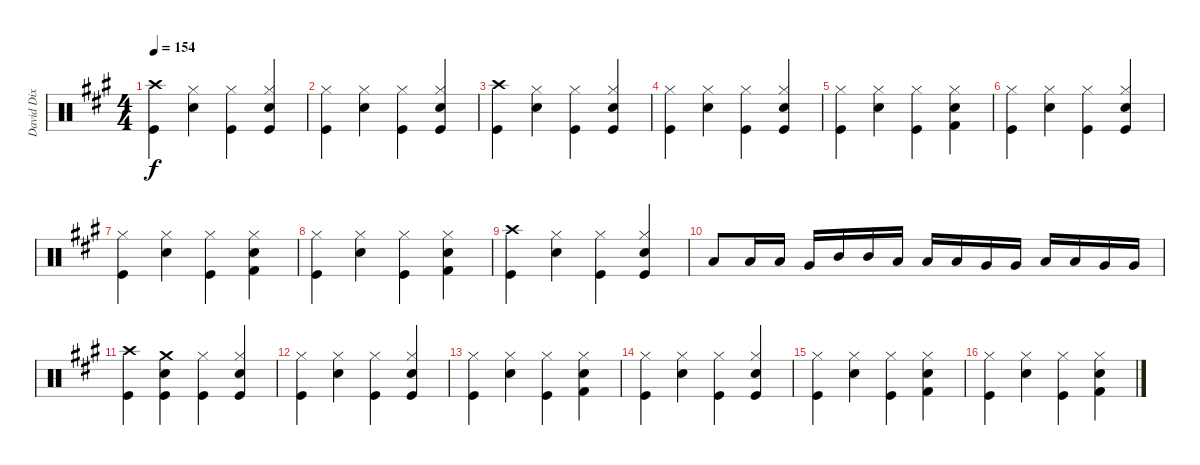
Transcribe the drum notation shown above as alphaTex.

\track ("David Dix Drums" "David Dix ") {instrument percussion}
\staff {score}
\articulation defaults
\ts (4 4)
\tempo 154
\clef neutral
\ks f#minor
("Crash high (hit)" "Kick (hit)").4{dy f} ("Hi-Hat (closed)" "Snare (hit) 2").4 ("Hi-Hat (closed)" "Kick (hit)").4 ("Hi-Hat (closed)" "Snare (hit) 2" "Kick (hit)").4 |
("Hi-Hat (closed)" "Kick (hit)").4 ("Hi-Hat (closed)" "Snare (hit) 2").4 ("Hi-Hat (closed)" "Kick (hit)").4 ("Hi-Hat (closed)" "Snare (hit) 2" "Kick (hit)").4 |
("Crash high (hit)" "Kick (hit)").4 ("Hi-Hat (closed)" "Snare (hit) 2").4 ("Hi-Hat (closed)" "Kick (hit)").4 ("Hi-Hat (closed)" "Snare (hit) 2" "Kick (hit)").4 |
("Hi-Hat (closed)" "Kick (hit)").4 ("Hi-Hat (closed)" "Snare (hit) 2").4 ("Hi-Hat (closed)" "Kick (hit)").4 ("Hi-Hat (closed)" "Snare (hit) 2" "Kick (hit)").4 |
("Hi-Hat (closed)" "Kick (hit)").4 ("Hi-Hat (closed)" "Snare (hit) 2").4 ("Hi-Hat (closed)" "Kick (hit)").4 ("Hi-Hat (closed)" "Snare (hit) 2" "Kick (hit) 2").4 |
("Hi-Hat (closed)" "Kick (hit)").4 ("Hi-Hat (closed)" "Snare (hit) 2").4 ("Hi-Hat (closed)" "Kick (hit)").4 ("Hi-Hat (closed)" "Snare (hit) 2" "Kick (hit)").4 |
("Hi-Hat (closed)" "Kick (hit)").4 ("Hi-Hat (closed)" "Snare (hit) 2").4 ("Hi-Hat (closed)" "Kick (hit)").4 ("Hi-Hat (closed)" "Snare (hit) 2" "Kick (hit) 2").4 |
("Hi-Hat (closed)" "Kick (hit)").4 ("Hi-Hat (closed)" "Snare (hit) 2").4 ("Hi-Hat (closed)" "Kick (hit)").4 ("Hi-Hat (closed)" "Snare (hit) 2" "Kick (hit) 2").4 |
("Crash high (hit)" "Kick (hit)").4 ("Hi-Hat (closed)" "Snare (hit) 2").4 ("Hi-Hat (closed)" "Kick (hit)").4 ("Hi-Hat (closed)" "Snare (hit) 2" "Kick (hit)").4 |
"Low Tom (hit)".8 "Low Tom (hit)".16 "Low Tom (hit)".16 "Very Low Tom (hit)".16 "Mid Tom (hit)".16 "Mid Tom (hit)".16 "Low Tom (hit)".16 "Low Tom (hit)".16 "Low Tom (hit)".16 "Very Low Tom (hit)".16 "Very Low Tom (hit)".16 "Low Tom (hit)".16 "Low Tom (hit)".16 "Very Low Tom (hit)".16 "Very Low Tom (hit)".16 |
("Crash high (hit)" "Kick (hit)").4 ("Crash medium (hit)" "Snare (hit) 2" "Kick (hit)").4 ("Hi-Hat (closed)" "Kick (hit)").4 ("Hi-Hat (closed)" "Snare (hit) 2" "Kick (hit)").4 |
("Hi-Hat (closed)" "Kick (hit)").4 ("Hi-Hat (closed)" "Snare (hit) 2").4 ("Hi-Hat (closed)" "Kick (hit)").4 ("Hi-Hat (closed)" "Snare (hit) 2" "Kick (hit)").4 |
("Hi-Hat (closed)" "Kick (hit)").4 ("Hi-Hat (closed)" "Snare (hit) 2").4 ("Hi-Hat (closed)" "Kick (hit)").4 ("Hi-Hat (closed)" "Snare (hit) 2" "Kick (hit) 2").4 |
("Hi-Hat (closed)" "Kick (hit)").4 ("Hi-Hat (closed)" "Snare (hit) 2").4 ("Hi-Hat (closed)" "Kick (hit)").4 ("Hi-Hat (closed)" "Snare (hit) 2" "Kick (hit)").4 |
("Hi-Hat (closed)" "Kick (hit)").4 ("Hi-Hat (closed)" "Snare (hit) 2").4 ("Hi-Hat (closed)" "Kick (hit)").4 ("Hi-Hat (closed)" "Snare (hit) 2" "Kick (hit) 2").4 |
("Hi-Hat (closed)" "Kick (hit)").4 ("Hi-Hat (closed)" "Snare (hit) 2").4 ("Hi-Hat (closed)" "Kick (hit)").4 ("Hi-Hat (closed)" "Snare (hit) 2" "Kick (hit) 2").4
